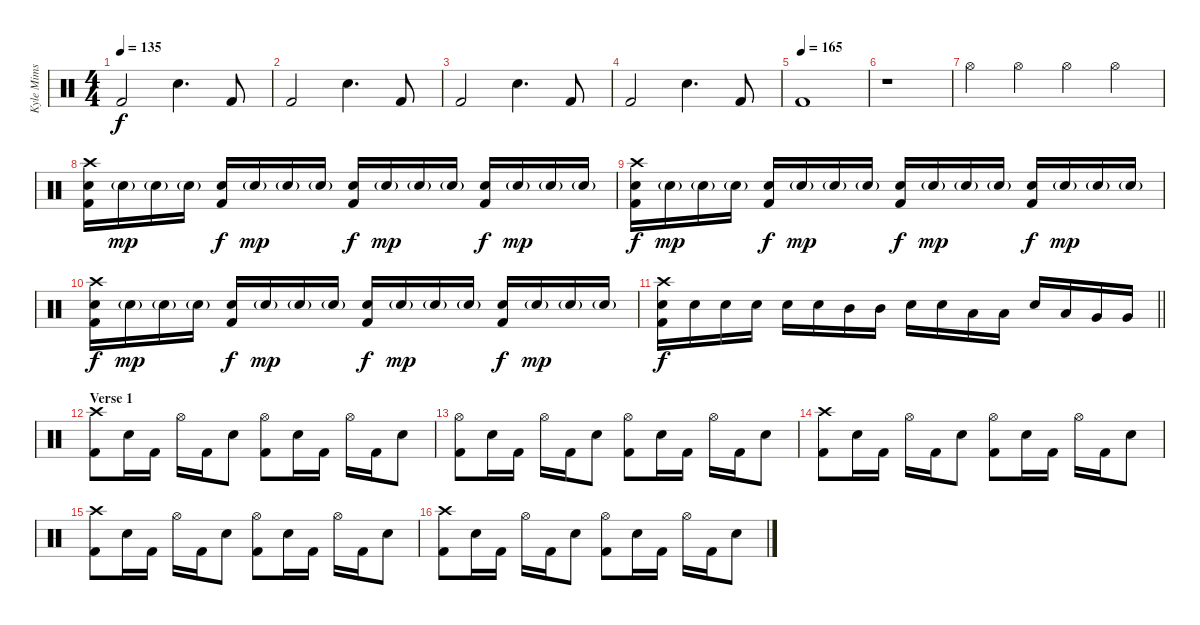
\track ("Kyle Mims" "Kyle Mims") {instrument percussion}
\staff {score}
\articulation defaults
\ts (4 4)
\tempo 135
\clef neutral
\ks c "Kick (hit) 2".2{dy f} "Electric Snare (hit)".4{d} "Kick (hit) 2".8
|
"Kick (hit) 2".2 "Electric Snare (hit)".4{d} "Kick (hit) 2".8 |
"Kick (hit) 2".2 "Electric Snare (hit)".4{d} "Kick (hit) 2".8 |
"Kick (hit) 2".2 "Electric Snare (hit)".4{d} "Kick (hit) 2".8 |
\tempo (165)
"Kick (hit) 2".1 |
r.1 |
"Hi-Hat (open)".4 "Hi-Hat (open)".4 "Hi-Hat (open)".4 "Hi-Hat (open)".4 |
("Crash high (hit)" "Electric Snare (hit)" "Kick (hit) 2").16 "Electric Snare (hit)"{g}.16{dy mp} "Electric Snare (hit)"{g}.16 "Electric Snare (hit)"{g}.16 ("Electric Snare (hit)" "Kick (hit) 2").16{dy f} "Electric Snare (hit)"{g}.16{dy mp} "Electric Snare (hit)"{g}.16 "Electric Snare (hit)"{g}.16 ("Electric Snare (hit)" "Kick (hit) 2").16{dy f} "Electric Snare (hit)"{g}.16{dy mp} "Electric Snare (hit)"{g}.16 "Electric Snare (hit)"{g}.16 ("Electric Snare (hit)" "Kick (hit) 2").16{dy f} "Electric Snare (hit)"{g}.16{dy mp} "Electric Snare (hit)"{g}.16 "Electric Snare (hit)"{g}.16 |
("Crash high (hit)" "Electric Snare (hit)" "Kick (hit) 2").16{dy f} "Electric Snare (hit)"{g}.16{dy mp} "Electric Snare (hit)"{g}.16 "Electric Snare (hit)"{g}.16 ("Electric Snare (hit)" "Kick (hit) 2").16{dy f} "Electric Snare (hit)"{g}.16{dy mp} "Electric Snare (hit)"{g}.16 "Electric Snare (hit)"{g}.16 ("Electric Snare (hit)" "Kick (hit) 2").16{dy f} "Electric Snare (hit)"{g}.16{dy mp} "Electric Snare (hit)"{g}.16 "Electric Snare (hit)"{g}.16 ("Electric Snare (hit)" "Kick (hit) 2").16{dy f} "Electric Snare (hit)"{g}.16{dy mp} "Electric Snare (hit)"{g}.16 "Electric Snare (hit)"{g}.16 |
("Crash high (hit)" "Electric Snare (hit)" "Kick (hit) 2").16{dy f} "Electric Snare (hit)"{g}.16{dy mp} "Electric Snare (hit)"{g}.16 "Electric Snare (hit)"{g}.16 ("Electric Snare (hit)" "Kick (hit) 2").16{dy f} "Electric Snare (hit)"{g}.16{dy mp} "Electric Snare (hit)"{g}.16 "Electric Snare (hit)"{g}.16 ("Electric Snare (hit)" "Kick (hit) 2").16{dy f} "Electric Snare (hit)"{g}.16{dy mp} "Electric Snare (hit)"{g}.16 "Electric Snare (hit)"{g}.16 ("Electric Snare (hit)" "Kick (hit) 2").16{dy f} "Electric Snare (hit)"{g}.16{dy mp} "Electric Snare (hit)"{g}.16 "Electric Snare (hit)"{g}.16 |
\barLineRight lightlight
("Crash high (hit)" "Electric Snare (hit)" "Kick (hit) 2").16{dy f} "Electric Snare (hit)".16 "Electric Snare (hit)".16 "Electric Snare (hit)".16 "Electric Snare (hit)".16 "Electric Snare (hit)".16 "Mid Tom (hit)".16 "Mid Tom (hit)".16 "Electric Snare (hit)".16 "Electric Snare (hit)".16 "Low Tom (hit)".16 "Low Tom (hit)".16 "Electric Snare (hit)".16 "Low Tom (hit)".16 "Very Low Tom (hit)".16 "Very Low Tom (hit)".16 |
\section ("" "Verse 1")
("Crash high (hit)" "Kick (hit) 2").8 "Electric Snare (hit)".16 "Kick (hit) 2".16 "Hi-Hat (open)".16 "Kick (hit) 2".16 "Electric Snare (hit)".8 ("Hi-Hat (open)" "Kick (hit) 2").8 "Electric Snare (hit)".16 "Kick (hit) 2".16 "Hi-Hat (open)".16 "Kick (hit) 2".16 "Electric Snare (hit)".8 |
("Hi-Hat (open)" "Kick (hit) 2").8 "Electric Snare (hit)".16 "Kick (hit) 2".16 "Hi-Hat (open)".16 "Kick (hit) 2".16 "Electric Snare (hit)".8 ("Hi-Hat (open)" "Kick (hit) 2").8 "Electric Snare (hit)".16 "Kick (hit) 2".16 "Hi-Hat (open)".16 "Kick (hit) 2".16 "Electric Snare (hit)".8 |
("Crash high (hit)" "Kick (hit) 2").8 "Electric Snare (hit)".16 "Kick (hit) 2".16 "Hi-Hat (open)".16 "Kick (hit) 2".16 "Electric Snare (hit)".8 ("Hi-Hat (open)" "Kick (hit) 2").8 "Electric Snare (hit)".16 "Kick (hit) 2".16 "Hi-Hat (open)".16 "Kick (hit) 2".16 "Electric Snare (hit)".8 |
("Crash high (hit)" "Kick (hit) 2").8 "Electric Snare (hit)".16 "Kick (hit) 2".16 "Hi-Hat (open)".16 "Kick (hit) 2".16 "Electric Snare (hit)".8 ("Hi-Hat (open)" "Kick (hit) 2").8 "Electric Snare (hit)".16 "Kick (hit) 2".16 "Hi-Hat (open)".16 "Kick (hit) 2".16 "Electric Snare (hit)".8 |
("Crash high (hit)" "Kick (hit) 2").8 "Electric Snare (hit)".16 "Kick (hit) 2".16 "Hi-Hat (open)".16 "Kick (hit) 2".16 "Electric Snare (hit)".8 ("Hi-Hat (open)" "Kick (hit) 2").8 "Electric Snare (hit)".16 "Kick (hit) 2".16 "Hi-Hat (open)".16 "Kick (hit) 2".16 "Electric Snare (hit)".8
